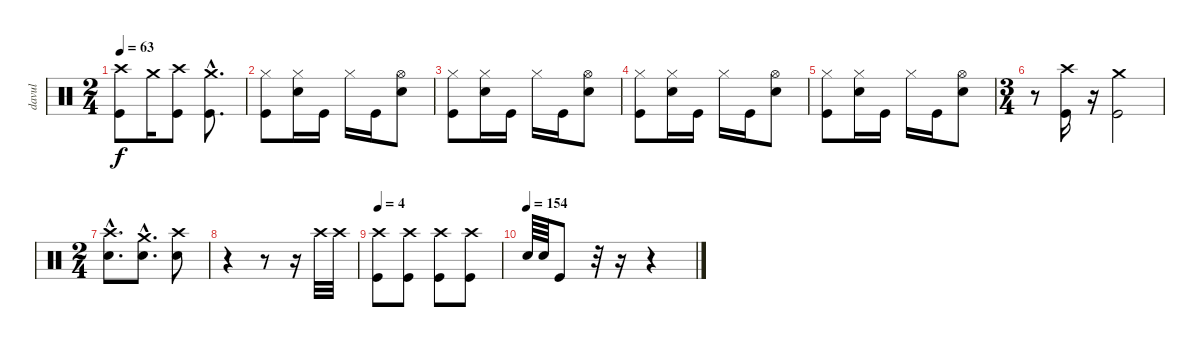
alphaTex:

\track ("davul" "davul") {instrument percussion}
\staff {score}
\articulation defaults
\ts (2 4)
\tempo 63
\clef neutral
\ks c
("Crash high (hit)" "Kick (hit)").8{dy f} "Crash medium (hit)".16 ("Crash high (hit)" "Kick (hit)").8 ("Crash medium (hit)"{hac} "Kick (hit)"{hac}).8{d} |
("Hi-Hat (closed)" "Kick (hit)").8 ("Hi-Hat (closed)" "Snare (hit) 2").16 "Kick (hit)".16 "Hi-Hat (closed)".16 "Kick (hit)".16 ("Hi-Hat (open)" "Snare (hit) 2").8 |
("Hi-Hat (closed)" "Kick (hit)").8 ("Hi-Hat (closed)" "Snare (hit) 2").16 "Kick (hit)".16 "Hi-Hat (closed)".16 "Kick (hit)".16 ("Hi-Hat (open)" "Snare (hit) 2").8 |
("Hi-Hat (closed)" "Kick (hit)").8 ("Hi-Hat (closed)" "Snare (hit) 2").16 "Kick (hit)".16 "Hi-Hat (closed)".16 "Kick (hit)".16 ("Hi-Hat (open)" "Snare (hit) 2").8 |
("Hi-Hat (closed)" "Kick (hit)").8 ("Hi-Hat (closed)" "Snare (hit) 2").16 "Kick (hit)".16 "Hi-Hat (closed)".16 "Kick (hit)".16 ("Hi-Hat (open)" "Snare (hit) 2").8 |
\ts (3 4)
r.8 ("Crash high (hit)" "Kick (hit)").16 r.16 ("Crash medium (hit)" "Kick (hit)").2 |
\ts (2 4)
("Crash high (hit)"{hac} "Snare (hit) 2"{hac}).8{d} ("Crash medium (hit)"{hac} "Snare (hit) 2"{hac}).8{d} ("Crash high (hit)" "Snare (hit) 2").8 |
r.4 r.8 r.16 "Crash high (hit)".32 "Crash high (hit)".32 |
\tempo 4
("Crash high (hit)" "Kick (hit)").8 ("Crash high (hit)" "Kick (hit)").8 ("Crash high (hit)" "Kick (hit)").8 ("Crash high (hit)" "Kick (hit)").8 |
\tempo (154)
"Snare (hit) 2".64 "Snare (hit) 2".64 "Kick (hit)".8 r.32 r.16 r.4
